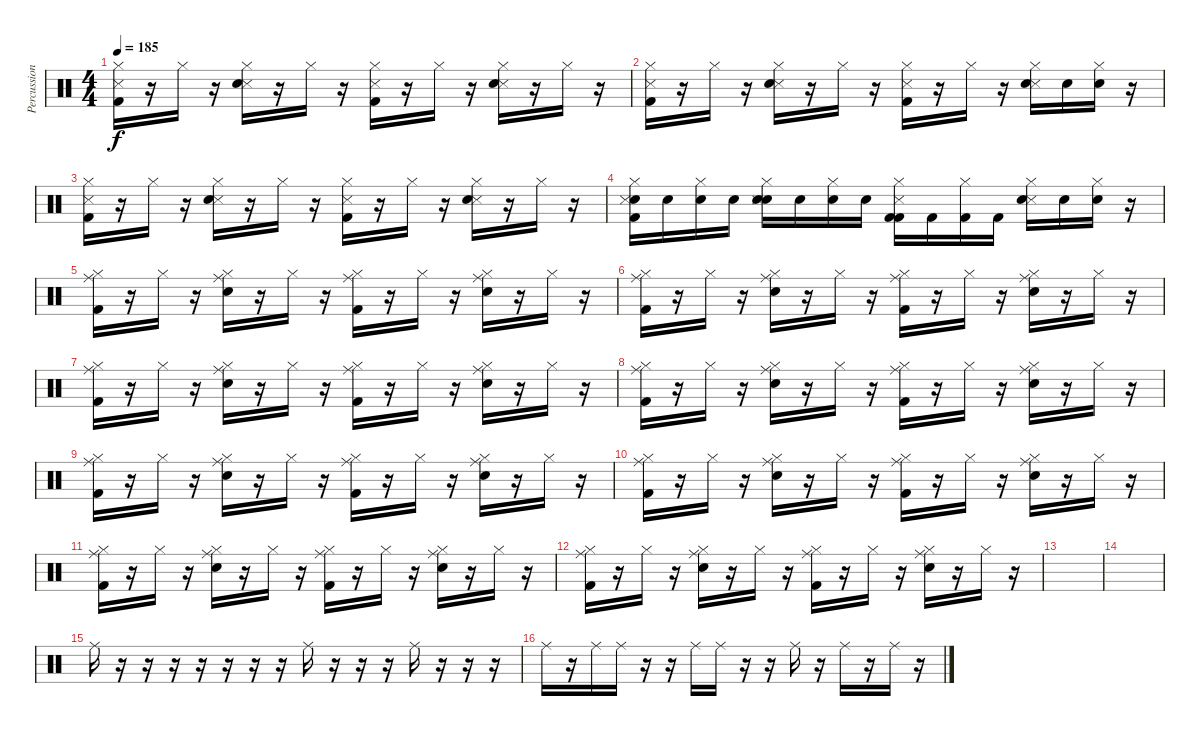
\track ("Percussion" "Percussion") {instrument percussion}
\staff {score}
\articulation defaults
\ts (4 4)
\tempo 185
\clef neutral
\ks c
("Metronome (hit)" "Hi-Hat (closed)" "Kick (hit) 2").16{dy f} r.16 "Hi-Hat (closed)".16 r.16 ("Metronome (hit)" "Hi-Hat (closed)" "Snare (hit) 2").16 r.16 "Hi-Hat (closed)".16 r.16 ("Metronome (hit)" "Hi-Hat (closed)" "Kick (hit) 2").16 r.16 "Hi-Hat (closed)".16 r.16 ("Metronome (hit)" "Hi-Hat (closed)" "Snare (hit) 2").16 r.16 "Hi-Hat (closed)".16 r.16 |
("Metronome (hit)" "Hi-Hat (closed)" "Kick (hit) 2").16 r.16 "Hi-Hat (closed)".16 r.16 ("Metronome (hit)" "Hi-Hat (closed)" "Snare (hit) 2").16 r.16 "Hi-Hat (closed)".16 r.16 ("Metronome (hit)" "Hi-Hat (closed)" "Kick (hit) 2").16 r.16 "Hi-Hat (closed)".16 r.16 ("Metronome (hit)" "Hi-Hat (closed)" "Snare (hit) 2").16 "Snare (hit) 2".16 ("Hi-Hat (closed)" "Snare (hit) 2").16 r.16 |
("Metronome (hit)" "Hi-Hat (closed)" "Kick (hit) 2").16 r.16 "Hi-Hat (closed)".16 r.16 ("Metronome (hit)" "Hi-Hat (closed)" "Snare (hit) 2").16 r.16 "Hi-Hat (closed)".16 r.16 ("Metronome (hit)" "Hi-Hat (closed)" "Kick (hit) 2").16 r.16 "Hi-Hat (closed)".16 r.16 ("Metronome (hit)" "Hi-Hat (closed)" "Snare (hit) 2").16 r.16 "Hi-Hat (closed)".16 r.16 |
("Snare (hit) 2" "Metronome (hit)" "Hi-Hat (closed)" "Kick (hit) 2").16 "Snare (hit) 2".16 ("Snare (hit) 2" "Hi-Hat (closed)").16 "Snare (hit) 2".16 ("Snare (hit) 2" "Metronome (hit)" "Hi-Hat (closed)" "Snare (hit) 2").16 "Snare (hit) 2".16 ("Snare (hit) 2" "Hi-Hat (closed)").16 "Snare (hit) 2".16 ("Kick (hit) 2" "Metronome (hit)" "Hi-Hat (closed)" "Kick (hit) 2").16 "Kick (hit) 2".16 ("Kick (hit) 2" "Hi-Hat (closed)").16 "Kick (hit) 2".16 ("Metronome (hit)" "Hi-Hat (closed)" "Snare (hit) 2").16 "Snare (hit) 2".16 ("Hi-Hat (closed)" "Snare (hit) 2").16 r.16 |
("Ride (middle)" "Hi-Hat (closed)" "Kick (hit) 2").16 r.16 "Hi-Hat (closed)".16 r.16 ("Ride (middle)" "Hi-Hat (closed)" "Snare (hit) 2").16 r.16 "Hi-Hat (closed)".16 r.16 ("Ride (middle)" "Hi-Hat (closed)" "Kick (hit) 2").16 r.16 "Hi-Hat (closed)".16 r.16 ("Ride (middle)" "Hi-Hat (closed)" "Snare (hit) 2").16 r.16 "Hi-Hat (closed)".16 r.16 |
("Ride (middle)" "Hi-Hat (closed)" "Kick (hit) 2").16 r.16 "Hi-Hat (closed)".16 r.16 ("Ride (middle)" "Hi-Hat (closed)" "Snare (hit) 2").16 r.16 "Hi-Hat (closed)".16 r.16 ("Ride (middle)" "Hi-Hat (closed)" "Kick (hit) 2").16 r.16 "Hi-Hat (closed)".16 r.16 ("Ride (middle)" "Hi-Hat (closed)" "Snare (hit) 2").16 r.16 "Hi-Hat (closed)".16 r.16 |
("Ride (middle)" "Hi-Hat (closed)" "Kick (hit) 2").16 r.16 "Hi-Hat (closed)".16 r.16 ("Ride (middle)" "Hi-Hat (closed)" "Snare (hit) 2").16 r.16 "Hi-Hat (closed)".16 r.16 ("Ride (middle)" "Hi-Hat (closed)" "Kick (hit) 2").16 r.16 "Hi-Hat (closed)".16 r.16 ("Ride (middle)" "Hi-Hat (closed)" "Snare (hit) 2").16 r.16 "Hi-Hat (closed)".16 r.16 |
("Ride (middle)" "Hi-Hat (closed)" "Kick (hit) 2").16 r.16 "Hi-Hat (closed)".16 r.16 ("Ride (middle)" "Hi-Hat (closed)" "Snare (hit) 2").16 r.16 "Hi-Hat (closed)".16 r.16 ("Ride (middle)" "Hi-Hat (closed)" "Kick (hit) 2").16 r.16 "Hi-Hat (closed)".16 r.16 ("Ride (middle)" "Hi-Hat (closed)" "Snare (hit) 2").16 r.16 "Hi-Hat (closed)".16 r.16 |
("Ride (middle)" "Hi-Hat (closed)" "Kick (hit) 2").16 r.16 "Hi-Hat (closed)".16 r.16 ("Ride (middle)" "Hi-Hat (closed)" "Snare (hit) 2").16 r.16 "Hi-Hat (closed)".16 r.16 ("Ride (middle)" "Hi-Hat (closed)" "Kick (hit) 2").16 r.16 "Hi-Hat (closed)".16 r.16 ("Ride (middle)" "Hi-Hat (closed)" "Snare (hit) 2").16 r.16 "Hi-Hat (closed)".16 r.16 |
("Ride (middle)" "Hi-Hat (closed)" "Kick (hit) 2").16 r.16 "Hi-Hat (closed)".16 r.16 ("Ride (middle)" "Hi-Hat (closed)" "Snare (hit) 2").16 r.16 "Hi-Hat (closed)".16 r.16 ("Ride (middle)" "Hi-Hat (closed)" "Kick (hit) 2").16 r.16 "Hi-Hat (closed)".16 r.16 ("Ride (middle)" "Hi-Hat (closed)" "Snare (hit) 2").16 r.16 "Hi-Hat (closed)".16 r.16 |
("Ride (middle)" "Hi-Hat (closed)" "Kick (hit) 2").16 r.16 "Hi-Hat (closed)".16 r.16 ("Ride (middle)" "Hi-Hat (closed)" "Snare (hit) 2").16 r.16 "Hi-Hat (closed)".16 r.16 ("Ride (middle)" "Hi-Hat (closed)" "Kick (hit) 2").16 r.16 "Hi-Hat (closed)".16 r.16 ("Ride (middle)" "Hi-Hat (closed)" "Snare (hit) 2").16 r.16 "Hi-Hat (closed)".16 r.16 |
("Ride (middle)" "Hi-Hat (closed)" "Kick (hit) 2").16 r.16 "Hi-Hat (closed)".16 r.16 ("Ride (middle)" "Hi-Hat (closed)" "Snare (hit) 2").16 r.16 "Hi-Hat (closed)".16 r.16 ("Ride (middle)" "Hi-Hat (closed)" "Kick (hit) 2").16 r.16 "Hi-Hat (closed)".16 r.16 ("Ride (middle)" "Hi-Hat (closed)" "Snare (hit) 2").16 r.16 "Hi-Hat (closed)".16 r.16 |
|
|
"Ride (middle)".16 r.16 r.16 r.16 r.16 r.16 r.16 r.16 "Ride (middle)".16 r.16 r.16 r.16 "Ride (middle)".16 r.16 r.16 r.16 |
"Ride (middle)".16 r.16 "Ride (middle)".16 "Ride (middle)".16 r.16 r.16 "Ride (middle)".16 "Ride (middle)".16 r.16 r.16 "Ride (middle)".16 r.16 "Ride (middle)".16 r.16 "Ride (middle)".16 r.16
